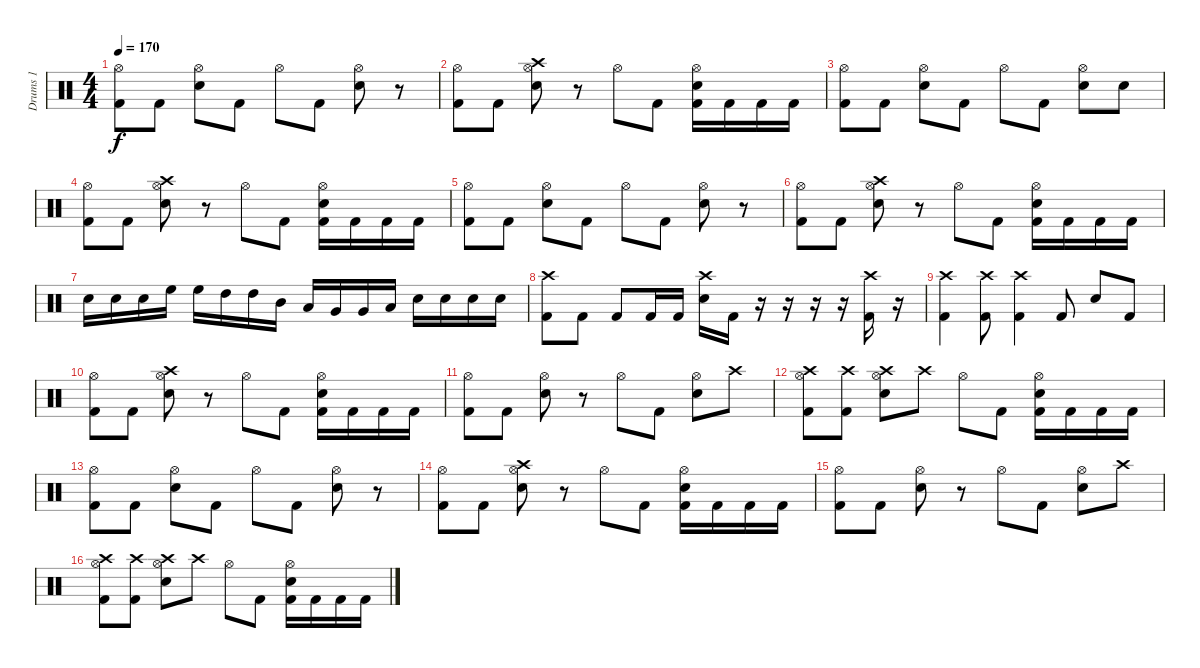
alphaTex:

\track ("Drums 1" "Drums 1") {instrument percussion}
\staff {score}
\articulation defaults
\ts (4 4)
\tempo 170
\clef neutral
\ks c
("Hi-Hat (open)" "Kick (hit) 2").8{dy f} "Kick (hit) 2".8 ("Hi-Hat (open)" "Electric Snare (hit)").8 "Kick (hit) 2".8 "Hi-Hat (open)".8 "Kick (hit) 2".8 ("Hi-Hat (open)" "Electric Snare (hit)").8 r.8 |
("Hi-Hat (open)" "Kick (hit) 2").8 "Kick (hit) 2".8 ("Crash high (hit)" "Hi-Hat (open)" "Electric Snare (hit)").8 r.8 "Hi-Hat (open)".8 "Kick (hit) 2".8 ("Hi-Hat (open)" "Electric Snare (hit)" "Kick (hit) 2").16 "Kick (hit) 2".16 "Kick (hit) 2".16 "Kick (hit) 2".16 |
("Hi-Hat (open)" "Kick (hit) 2").8 "Kick (hit) 2".8 ("Hi-Hat (open)" "Electric Snare (hit)").8 "Kick (hit) 2".8 "Hi-Hat (open)".8 "Kick (hit) 2".8 ("Hi-Hat (open)" "Electric Snare (hit)").8 "Electric Snare (hit)".8 |
("Hi-Hat (open)" "Kick (hit) 2").8 "Kick (hit) 2".8 ("Crash high (hit)" "Hi-Hat (open)" "Electric Snare (hit)").8 r.8 "Hi-Hat (open)".8 "Kick (hit) 2".8 ("Hi-Hat (open)" "Electric Snare (hit)" "Kick (hit) 2").16 "Kick (hit) 2".16 "Kick (hit) 2".16 "Kick (hit) 2".16 |
("Hi-Hat (open)" "Kick (hit) 2").8 "Kick (hit) 2".8 ("Hi-Hat (open)" "Electric Snare (hit)").8 "Kick (hit) 2".8 "Hi-Hat (open)".8 "Kick (hit) 2".8 ("Hi-Hat (open)" "Electric Snare (hit)").8 r.8 |
("Hi-Hat (open)" "Kick (hit) 2").8 "Kick (hit) 2".8 ("Crash high (hit)" "Hi-Hat (open)" "Electric Snare (hit)").8 r.8 "Hi-Hat (open)".8 "Kick (hit) 2".8 ("Hi-Hat (open)" "Electric Snare (hit)" "Kick (hit) 2").16 "Kick (hit) 2".16 "Kick (hit) 2".16 "Kick (hit) 2".16 |
"Electric Snare (hit)".16 "Electric Snare (hit)".16 "Electric Snare (hit)".16 "High Floor Tom (hit)".16 "High Floor Tom (hit)".16 "High Tom (hit)".16 "High Tom (hit)".16 "Mid Tom (hit)".16 "Low Tom (hit)".16 "Very Low Tom (hit)".16 "Very Low Tom (hit)".16 "Low Floor Tom (hit)".16 "Electric Snare (hit)".16 "Electric Snare (hit)".16 "Electric Snare (hit)".16 "Electric Snare (hit)".16 |
("Crash high (hit)" "Kick (hit) 2").8 "Kick (hit) 2".8 "Kick (hit) 2".8 "Kick (hit) 2".16 "Kick (hit) 2".16 ("Crash high (hit)" "Electric Snare (hit)").16 "Kick (hit) 2".16 r.16 r.16 r.16 r.16 ("Crash high (hit)" "Kick (hit) 2").16 r.16 |
("Crash high (hit)" "Kick (hit) 2").4 ("Crash high (hit)" "Kick (hit) 2").8 ("Crash high (hit)" "Kick (hit) 2").4 "Kick (hit) 2".8 "Electric Snare (hit)".8 "Kick (hit) 2".8 |
("Hi-Hat (open)" "Kick (hit) 2").8 "Kick (hit) 2".8 ("Crash high (hit)" "Hi-Hat (open)" "Electric Snare (hit)").8 r.8 "Hi-Hat (open)".8 "Kick (hit) 2".8 ("Hi-Hat (open)" "Electric Snare (hit)" "Kick (hit) 2").16 "Kick (hit) 2".16 "Kick (hit) 2".16 "Kick (hit) 2".16 |
("Hi-Hat (open)" "Kick (hit) 2").8 "Kick (hit) 2".8 ("Hi-Hat (open)" "Electric Snare (hit)").8 r.8 "Hi-Hat (open)".8 "Kick (hit) 2".8 ("Hi-Hat (open)" "Electric Snare (hit)").8 "Crash high (hit)".8 |
("Crash high (hit)" "Hi-Hat (open)" "Kick (hit) 2").8 ("Crash high (hit)" "Kick (hit) 2").8 ("Crash high (hit)" "Hi-Hat (open)" "Electric Snare (hit)").8 "Crash high (hit)".8 "Hi-Hat (open)".8 "Kick (hit) 2".8 ("Hi-Hat (open)" "Electric Snare (hit)" "Kick (hit) 2").16 "Kick (hit) 2".16 "Kick (hit) 2".16 "Kick (hit) 2".16 |
("Hi-Hat (open)" "Kick (hit) 2").8 "Kick (hit) 2".8 ("Hi-Hat (open)" "Electric Snare (hit)").8 "Kick (hit) 2".8 "Hi-Hat (open)".8 "Kick (hit) 2".8 ("Hi-Hat (open)" "Electric Snare (hit)").8 r.8 |
("Hi-Hat (open)" "Kick (hit) 2").8 "Kick (hit) 2".8 ("Crash high (hit)" "Hi-Hat (open)" "Electric Snare (hit)").8 r.8 "Hi-Hat (open)".8 "Kick (hit) 2".8 ("Hi-Hat (open)" "Electric Snare (hit)" "Kick (hit) 2").16 "Kick (hit) 2".16 "Kick (hit) 2".16 "Kick (hit) 2".16 |
("Hi-Hat (open)" "Kick (hit) 2").8 "Kick (hit) 2".8 ("Hi-Hat (open)" "Electric Snare (hit)").8 r.8 "Hi-Hat (open)".8 "Kick (hit) 2".8 ("Hi-Hat (open)" "Electric Snare (hit)").8 "Crash high (hit)".8 |
("Crash high (hit)" "Hi-Hat (open)" "Kick (hit) 2").8 ("Crash high (hit)" "Kick (hit) 2").8 ("Crash high (hit)" "Hi-Hat (open)" "Electric Snare (hit)").8 "Crash high (hit)".8 "Hi-Hat (open)".8 "Kick (hit) 2".8 ("Hi-Hat (open)" "Electric Snare (hit)" "Kick (hit) 2").16 "Kick (hit) 2".16 "Kick (hit) 2".16 "Kick (hit) 2".16
